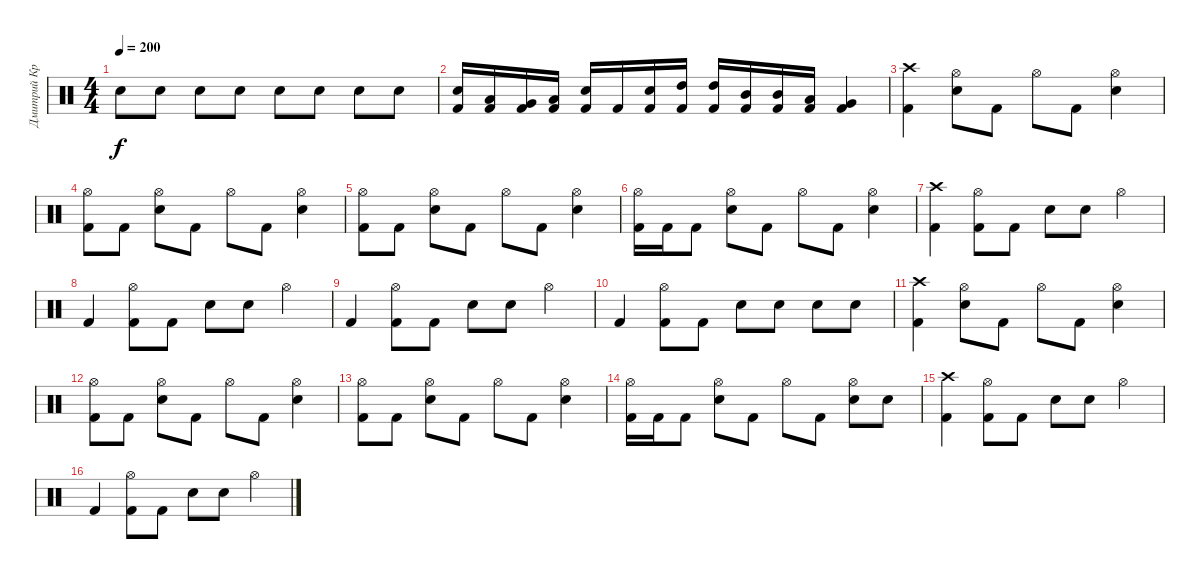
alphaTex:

\track ("Дмитрий Кривенков" "Дмитрий Кр") {instrument percussion}
\staff {score}
\articulation defaults
\ts (4 4)
\tempo 200
\clef neutral
\ks c "Electric Snare (hit)".8{dy f} "Electric Snare (hit)".8 "Electric Snare (hit)".8 "Electric Snare (hit)".8 "Electric Snare (hit)".8 "Electric Snare (hit)".8 "Electric Snare (hit)".8 "Electric Snare (hit)".8
|
("Electric Snare (hit)" "Kick (hit) 2").16 ("Low Tom (hit)" "Kick (hit) 2").16 ("Very Low Tom (hit)" "Kick (hit) 2").16 ("Low Floor Tom (hit)" "Kick (hit) 2").16 ("Electric Snare (hit)" "Kick (hit) 2").16 "Kick (hit) 2".16 ("Electric Snare (hit)" "Kick (hit) 2").16 ("High Tom (hit)" "Kick (hit) 2").16 ("High Tom (hit)" "Kick (hit) 2").16 ("Mid Tom (hit)" "Kick (hit) 2").16 ("Mid Tom (hit)" "Kick (hit) 2").16 ("Low Tom (hit)" "Kick (hit) 2").16 ("Very Low Tom (hit)" "Kick (hit) 2").4 |
("Crash high (hit)" "Kick (hit) 2").4 ("Hi-Hat (open)" "Electric Snare (hit)").8 "Kick (hit) 2".8 "Hi-Hat (open)".8 "Kick (hit) 2".8 ("Hi-Hat (open)" "Electric Snare (hit)").4 |
("Hi-Hat (open)" "Kick (hit) 2").8 "Kick (hit) 2".8 ("Hi-Hat (open)" "Electric Snare (hit)").8 "Kick (hit) 2".8 "Hi-Hat (open)".8 "Kick (hit) 2".8 ("Hi-Hat (open)" "Electric Snare (hit)").4 |
("Hi-Hat (open)" "Kick (hit) 2").8 "Kick (hit) 2".8 ("Hi-Hat (open)" "Electric Snare (hit)").8 "Kick (hit) 2".8 "Hi-Hat (open)".8 "Kick (hit) 2".8 ("Hi-Hat (open)" "Electric Snare (hit)").4 |
("Hi-Hat (open)" "Kick (hit) 2").16 "Kick (hit) 2".16 "Kick (hit) 2".8 ("Hi-Hat (open)" "Electric Snare (hit)").8 "Kick (hit) 2".8 "Hi-Hat (open)".8 "Kick (hit) 2".8 ("Hi-Hat (open)" "Electric Snare (hit)").4 |
("Crash high (hit)" "Kick (hit) 2").4 ("Hi-Hat (open)" "Kick (hit) 2").8 "Kick (hit) 2".8 "Electric Snare (hit)".8 "Electric Snare (hit)".8 "Hi-Hat (open)".4 |
"Kick (hit) 2".4 ("Hi-Hat (open)" "Kick (hit) 2").8 "Kick (hit) 2".8 "Electric Snare (hit)".8 "Electric Snare (hit)".8 "Hi-Hat (open)".4 |
"Kick (hit) 2".4 ("Hi-Hat (open)" "Kick (hit) 2").8 "Kick (hit) 2".8 "Electric Snare (hit)".8 "Electric Snare (hit)".8 "Hi-Hat (open)".4 |
"Kick (hit) 2".4 ("Hi-Hat (open)" "Kick (hit) 2").8 "Kick (hit) 2".8 "Electric Snare (hit)".8 "Electric Snare (hit)".8 "Electric Snare (hit)".8 "Electric Snare (hit)".8 |
("Crash high (hit)" "Kick (hit) 2").4 ("Hi-Hat (open)" "Electric Snare (hit)").8 "Kick (hit) 2".8 "Hi-Hat (open)".8 "Kick (hit) 2".8 ("Hi-Hat (open)" "Electric Snare (hit)").4 |
("Hi-Hat (open)" "Kick (hit) 2").8 "Kick (hit) 2".8 ("Hi-Hat (open)" "Electric Snare (hit)").8 "Kick (hit) 2".8 "Hi-Hat (open)".8 "Kick (hit) 2".8 ("Hi-Hat (open)" "Electric Snare (hit)").4 |
("Hi-Hat (open)" "Kick (hit) 2").8 "Kick (hit) 2".8 ("Hi-Hat (open)" "Electric Snare (hit)").8 "Kick (hit) 2".8 "Hi-Hat (open)".8 "Kick (hit) 2".8 ("Hi-Hat (open)" "Electric Snare (hit)").4 |
("Hi-Hat (open)" "Kick (hit) 2").16 "Kick (hit) 2".16 "Kick (hit) 2".8 ("Hi-Hat (open)" "Electric Snare (hit)").8 "Kick (hit) 2".8 "Hi-Hat (open)".8 "Kick (hit) 2".8 ("Hi-Hat (open)" "Electric Snare (hit)").8 "Electric Snare (hit)".8 |
("Crash high (hit)" "Kick (hit) 2").4 ("Hi-Hat (open)" "Kick (hit) 2").8 "Kick (hit) 2".8 "Electric Snare (hit)".8 "Electric Snare (hit)".8 "Hi-Hat (open)".4 |
"Kick (hit) 2".4 ("Hi-Hat (open)" "Kick (hit) 2").8 "Kick (hit) 2".8 "Electric Snare (hit)".8 "Electric Snare (hit)".8 "Hi-Hat (open)".4
